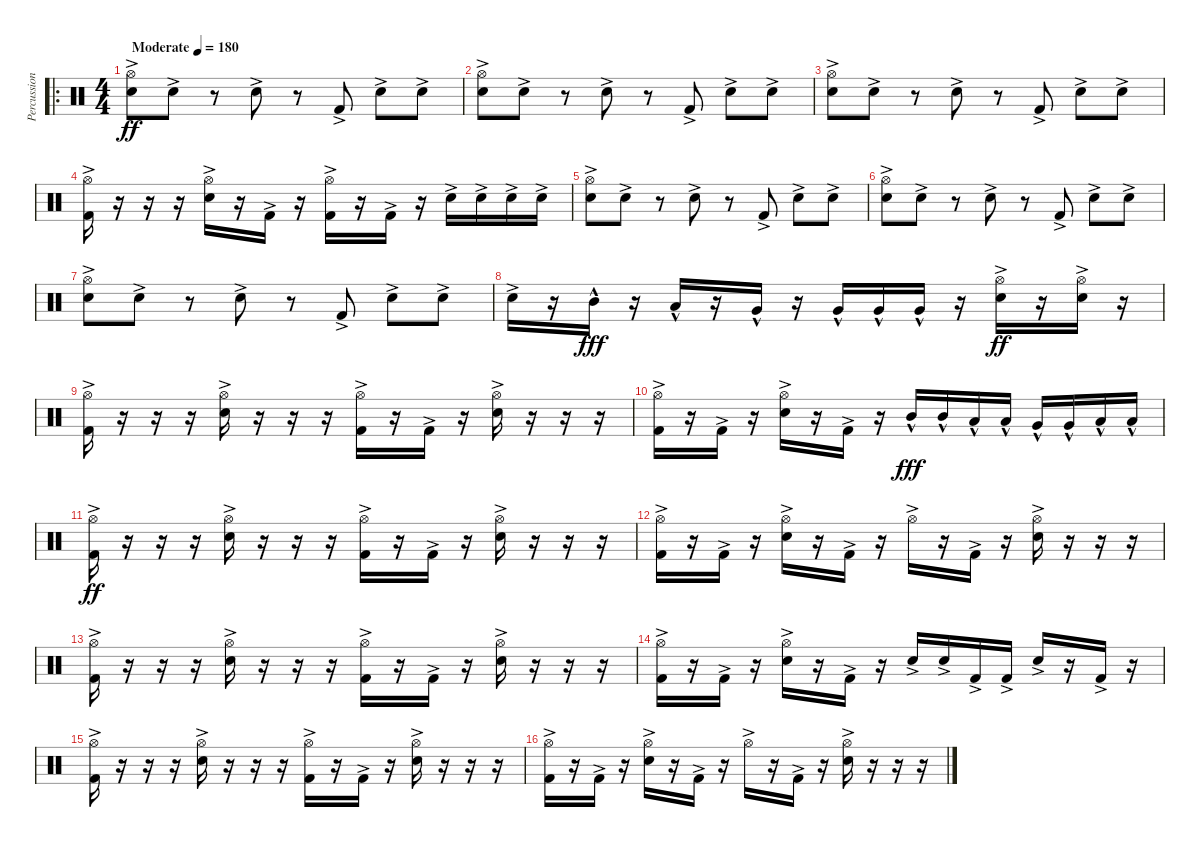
\track ("Percussion" "Percussion") {instrument percussion}
\staff {score}
\articulation defaults
\ro
\ts (4 4)
\tempo (180 "Moderate")
\clef neutral
\ks c
("Hi-Hat (open)"{ac} "Snare (hit) 2"{ac}).8{dy ff} "Snare (hit) 2"{ac}.8 r.8 "Snare (hit) 2"{ac}.8 r.8 "Kick (hit) 2"{ac}.8 "Snare (hit) 2"{ac}.8 "Snare (hit) 2"{ac}.8 |
("Hi-Hat (open)"{ac} "Snare (hit) 2"{ac}).8 "Snare (hit) 2"{ac}.8 r.8 "Snare (hit) 2"{ac}.8 r.8 "Kick (hit) 2"{ac}.8 "Snare (hit) 2"{ac}.8 "Snare (hit) 2"{ac}.8 |
("Hi-Hat (open)"{ac} "Snare (hit) 2"{ac}).8 "Snare (hit) 2"{ac}.8 r.8 "Snare (hit) 2"{ac}.8 r.8 "Kick (hit) 2"{ac}.8 "Snare (hit) 2"{ac}.8 "Snare (hit) 2"{ac}.8 |
("Hi-Hat (open)"{ac} "Kick (hit) 2"{ac}).16 r.16 r.16 r.16 ("Hi-Hat (open)"{ac} "Snare (hit) 2"{ac}).16 r.16 "Kick (hit) 2"{ac}.16 r.16 ("Hi-Hat (open)"{ac} "Kick (hit) 2"{ac}).16 r.16 "Kick (hit) 2"{ac}.16 r.16 "Snare (hit) 2"{ac}.16 "Snare (hit) 2"{ac}.16 "Snare (hit) 2"{ac}.16 "Snare (hit) 2"{ac}.16 |
("Hi-Hat (open)"{ac} "Snare (hit) 2"{ac}).8 "Snare (hit) 2"{ac}.8 r.8 "Snare (hit) 2"{ac}.8 r.8 "Kick (hit) 2"{ac}.8 "Snare (hit) 2"{ac}.8 "Snare (hit) 2"{ac}.8 |
("Hi-Hat (open)"{ac} "Snare (hit) 2"{ac}).8 "Snare (hit) 2"{ac}.8 r.8 "Snare (hit) 2"{ac}.8 r.8 "Kick (hit) 2"{ac}.8 "Snare (hit) 2"{ac}.8 "Snare (hit) 2"{ac}.8 |
("Hi-Hat (open)"{ac} "Snare (hit) 2"{ac}).8 "Snare (hit) 2"{ac}.8 r.8 "Snare (hit) 2"{ac}.8 r.8 "Kick (hit) 2"{ac}.8 "Snare (hit) 2"{ac}.8 "Snare (hit) 2"{ac}.8 |
"Snare (hit) 2"{ac}.16 r.16 "Mid Tom (hit)"{hac}.16{dy fff} r.16 "Low Tom (hit)"{hac}.16 r.16 "Very Low Tom (hit)"{hac}.16 r.16 "Very Low Tom (hit)"{hac}.16 "Very Low Tom (hit)"{hac}.16 "Very Low Tom (hit)"{hac}.16 r.16 ("Hi-Hat (open)"{ac} "Snare (hit) 2"{ac}).16{dy ff} r.16 ("Hi-Hat (open)"{ac} "Snare (hit) 2"{ac}).16 r.16 |
("Hi-Hat (open)"{ac} "Kick (hit) 2"{ac}).16 r.16 r.16 r.16 ("Hi-Hat (open)"{ac} "Snare (hit) 2"{ac}).16 r.16 r.16 r.16 ("Hi-Hat (open)"{ac} "Kick (hit) 2"{ac}).16 r.16 "Kick (hit) 2"{ac}.16 r.16 ("Hi-Hat (open)"{ac} "Snare (hit) 2"{ac}).16 r.16 r.16 r.16 |
("Hi-Hat (open)"{ac} "Kick (hit) 2"{ac}).16 r.16 "Kick (hit) 2"{ac}.16 r.16 ("Hi-Hat (open)"{ac} "Snare (hit) 2"{ac}).16 r.16 "Kick (hit) 2"{ac}.16 r.16 "Mid Tom (hit)"{hac}.16{dy fff} "Mid Tom (hit)"{hac}.16 "Low Tom (hit)"{hac}.16 "Low Tom (hit)"{hac}.16 "Very Low Tom (hit)"{hac}.16 "Very Low Tom (hit)"{hac}.16 "Low Floor Tom (hit)"{hac}.16 "Low Floor Tom (hit)"{hac}.16 |
("Hi-Hat (open)"{ac} "Kick (hit) 2"{ac}).16{dy ff} r.16 r.16 r.16 ("Hi-Hat (open)"{ac} "Snare (hit) 2"{ac}).16 r.16 r.16 r.16 ("Hi-Hat (open)"{ac} "Kick (hit) 2"{ac}).16 r.16 "Kick (hit) 2"{ac}.16 r.16 ("Hi-Hat (open)"{ac} "Snare (hit) 2"{ac}).16 r.16 r.16 r.16 |
("Hi-Hat (open)"{ac} "Kick (hit) 2"{ac}).16 r.16 "Kick (hit) 2"{ac}.16 r.16 ("Hi-Hat (open)"{ac} "Snare (hit) 2"{ac}).16 r.16 "Kick (hit) 2"{ac}.16 r.16 "Hi-Hat (open)"{ac}.16 r.16 "Kick (hit) 2"{ac}.16 r.16 ("Hi-Hat (open)"{ac} "Snare (hit) 2"{ac}).16 r.16 r.16 r.16 |
("Hi-Hat (open)"{ac} "Kick (hit) 2"{ac}).16 r.16 r.16 r.16 ("Hi-Hat (open)"{ac} "Snare (hit) 2"{ac}).16 r.16 r.16 r.16 ("Hi-Hat (open)"{ac} "Kick (hit) 2"{ac}).16 r.16 "Kick (hit) 2"{ac}.16 r.16 ("Hi-Hat (open)"{ac} "Snare (hit) 2"{ac}).16 r.16 r.16 r.16 |
("Hi-Hat (open)"{ac} "Kick (hit) 2"{ac}).16 r.16 "Kick (hit) 2"{ac}.16 r.16 ("Hi-Hat (open)"{ac} "Snare (hit) 2"{ac}).16 r.16 "Kick (hit) 2"{ac}.16 r.16 "Snare (hit) 2"{ac}.16 "Snare (hit) 2"{ac}.16 "Kick (hit) 2"{ac}.16 "Kick (hit) 2"{ac}.16 "Snare (hit) 2"{ac}.16 r.16 "Kick (hit) 2"{ac}.16 r.16 |
("Hi-Hat (open)"{ac} "Kick (hit) 2"{ac}).16 r.16 r.16 r.16 ("Hi-Hat (open)"{ac} "Snare (hit) 2"{ac}).16 r.16 r.16 r.16 ("Hi-Hat (open)"{ac} "Kick (hit) 2"{ac}).16 r.16 "Kick (hit) 2"{ac}.16 r.16 ("Hi-Hat (open)"{ac} "Snare (hit) 2"{ac}).16 r.16 r.16 r.16 |
("Hi-Hat (open)"{ac} "Kick (hit) 2"{ac}).16 r.16 "Kick (hit) 2"{ac}.16 r.16 ("Hi-Hat (open)"{ac} "Snare (hit) 2"{ac}).16 r.16 "Kick (hit) 2"{ac}.16 r.16 "Hi-Hat (open)"{ac}.16 r.16 "Kick (hit) 2"{ac}.16 r.16 ("Hi-Hat (open)"{ac} "Snare (hit) 2"{ac}).16 r.16 r.16 r.16
